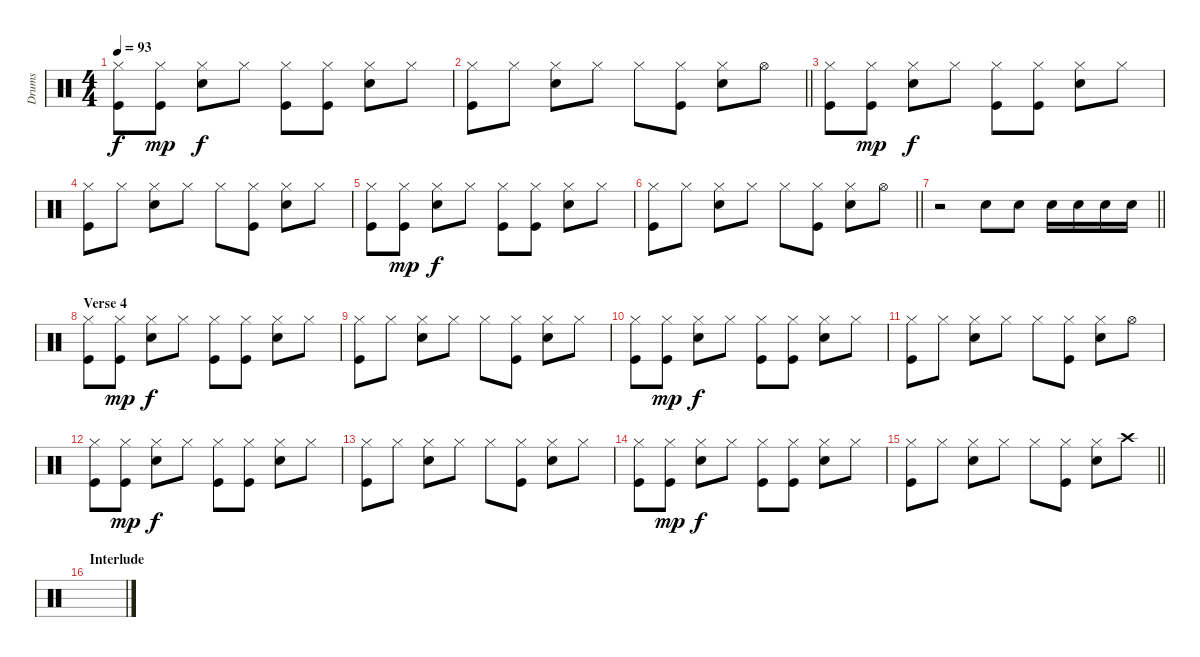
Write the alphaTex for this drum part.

\track ("Drums" "Drums") {instrument percussion}
\staff {score}
\articulation defaults
\ts (4 4)
\tempo 93
\clef neutral
\ks c
("Hi-Hat (closed)" "Kick (hit)").8{dy f} ("Hi-Hat (closed)" "Kick (hit)").8{dy mp} ("Hi-Hat (closed)" "Electric Snare (hit)").8{dy f} "Hi-Hat (closed)".8 ("Hi-Hat (closed)" "Kick (hit)").8 ("Hi-Hat (closed)" "Kick (hit)").8 ("Hi-Hat (closed)" "Electric Snare (hit)").8 "Hi-Hat (closed)".8 |
\barLineRight lightlight
("Hi-Hat (closed)" "Kick (hit)").8 "Hi-Hat (closed)".8 ("Hi-Hat (closed)" "Electric Snare (hit)").8 "Hi-Hat (closed)".8 "Hi-Hat (closed)".8 ("Hi-Hat (closed)" "Kick (hit)").8 ("Hi-Hat (closed)" "Electric Snare (hit)").8 "Hi-Hat (open)".8 |
("Hi-Hat (closed)" "Kick (hit)").8 ("Hi-Hat (closed)" "Kick (hit)").8{dy mp} ("Hi-Hat (closed)" "Electric Snare (hit)").8{dy f} "Hi-Hat (closed)".8 ("Hi-Hat (closed)" "Kick (hit)").8 ("Hi-Hat (closed)" "Kick (hit)").8 ("Hi-Hat (closed)" "Electric Snare (hit)").8 "Hi-Hat (closed)".8 |
("Hi-Hat (closed)" "Kick (hit)").8 "Hi-Hat (closed)".8 ("Hi-Hat (closed)" "Electric Snare (hit)").8 "Hi-Hat (closed)".8 "Hi-Hat (closed)".8 ("Hi-Hat (closed)" "Kick (hit)").8 ("Hi-Hat (closed)" "Electric Snare (hit)").8 "Hi-Hat (closed)".8 |
("Hi-Hat (closed)" "Kick (hit)").8 ("Hi-Hat (closed)" "Kick (hit)").8{dy mp} ("Hi-Hat (closed)" "Electric Snare (hit)").8{dy f} "Hi-Hat (closed)".8 ("Hi-Hat (closed)" "Kick (hit)").8 ("Hi-Hat (closed)" "Kick (hit)").8 ("Hi-Hat (closed)" "Electric Snare (hit)").8 "Hi-Hat (closed)".8 |
\barLineRight lightlight
("Hi-Hat (closed)" "Kick (hit)").8 "Hi-Hat (closed)".8 ("Hi-Hat (closed)" "Electric Snare (hit)").8 "Hi-Hat (closed)".8 "Hi-Hat (closed)".8 ("Hi-Hat (closed)" "Kick (hit)").8 ("Hi-Hat (closed)" "Electric Snare (hit)").8 "Hi-Hat (open)".8 |
\barLineRight lightlight
r.2 "Electric Snare (hit)".8 "Electric Snare (hit)".8 "Electric Snare (hit)".16 "Electric Snare (hit)".16 "Electric Snare (hit)".16 "Electric Snare (hit)".16 |
\section ("" "Verse 4")
("Hi-Hat (closed)" "Kick (hit)").8 ("Hi-Hat (closed)" "Kick (hit)").8{dy mp} ("Hi-Hat (closed)" "Electric Snare (hit)").8{dy f} "Hi-Hat (closed)".8 ("Hi-Hat (closed)" "Kick (hit)").8 ("Hi-Hat (closed)" "Kick (hit)").8 ("Hi-Hat (closed)" "Electric Snare (hit)").8 "Hi-Hat (closed)".8 |
("Hi-Hat (closed)" "Kick (hit)").8 "Hi-Hat (closed)".8 ("Hi-Hat (closed)" "Electric Snare (hit)").8 "Hi-Hat (closed)".8 "Hi-Hat (closed)".8 ("Hi-Hat (closed)" "Kick (hit)").8 ("Hi-Hat (closed)" "Electric Snare (hit)").8 "Hi-Hat (closed)".8 |
("Hi-Hat (closed)" "Kick (hit)").8 ("Hi-Hat (closed)" "Kick (hit)").8{dy mp} ("Hi-Hat (closed)" "Electric Snare (hit)").8{dy f} "Hi-Hat (closed)".8 ("Hi-Hat (closed)" "Kick (hit)").8 ("Hi-Hat (closed)" "Kick (hit)").8 ("Hi-Hat (closed)" "Electric Snare (hit)").8 "Hi-Hat (closed)".8 |
("Hi-Hat (closed)" "Kick (hit)").8 "Hi-Hat (closed)".8 ("Hi-Hat (closed)" "Electric Snare (hit)").8 "Hi-Hat (closed)".8 "Hi-Hat (closed)".8 ("Hi-Hat (closed)" "Kick (hit)").8 ("Hi-Hat (closed)" "Electric Snare (hit)").8 "Hi-Hat (open)".8 |
("Hi-Hat (closed)" "Kick (hit)").8 ("Hi-Hat (closed)" "Kick (hit)").8{dy mp} ("Hi-Hat (closed)" "Electric Snare (hit)").8{dy f} "Hi-Hat (closed)".8 ("Hi-Hat (closed)" "Kick (hit)").8 ("Hi-Hat (closed)" "Kick (hit)").8 ("Hi-Hat (closed)" "Electric Snare (hit)").8 "Hi-Hat (closed)".8 |
("Hi-Hat (closed)" "Kick (hit)").8 "Hi-Hat (closed)".8 ("Hi-Hat (closed)" "Electric Snare (hit)").8 "Hi-Hat (closed)".8 "Hi-Hat (closed)".8 ("Hi-Hat (closed)" "Kick (hit)").8 ("Hi-Hat (closed)" "Electric Snare (hit)").8 "Hi-Hat (closed)".8 |
("Hi-Hat (closed)" "Kick (hit)").8 ("Hi-Hat (closed)" "Kick (hit)").8{dy mp} ("Hi-Hat (closed)" "Electric Snare (hit)").8{dy f} "Hi-Hat (closed)".8 ("Hi-Hat (closed)" "Kick (hit)").8 ("Hi-Hat (closed)" "Kick (hit)").8 ("Hi-Hat (closed)" "Electric Snare (hit)").8 "Hi-Hat (closed)".8 |
\barLineRight lightlight
("Hi-Hat (closed)" "Kick (hit)").8 "Hi-Hat (closed)".8 ("Hi-Hat (closed)" "Electric Snare (hit)").8 "Hi-Hat (closed)".8 "Hi-Hat (closed)".8 ("Hi-Hat (closed)" "Kick (hit)").8 ("Hi-Hat (closed)" "Electric Snare (hit)").8 "Crash high (hit)".8 |
\section ("" "Interlude")
